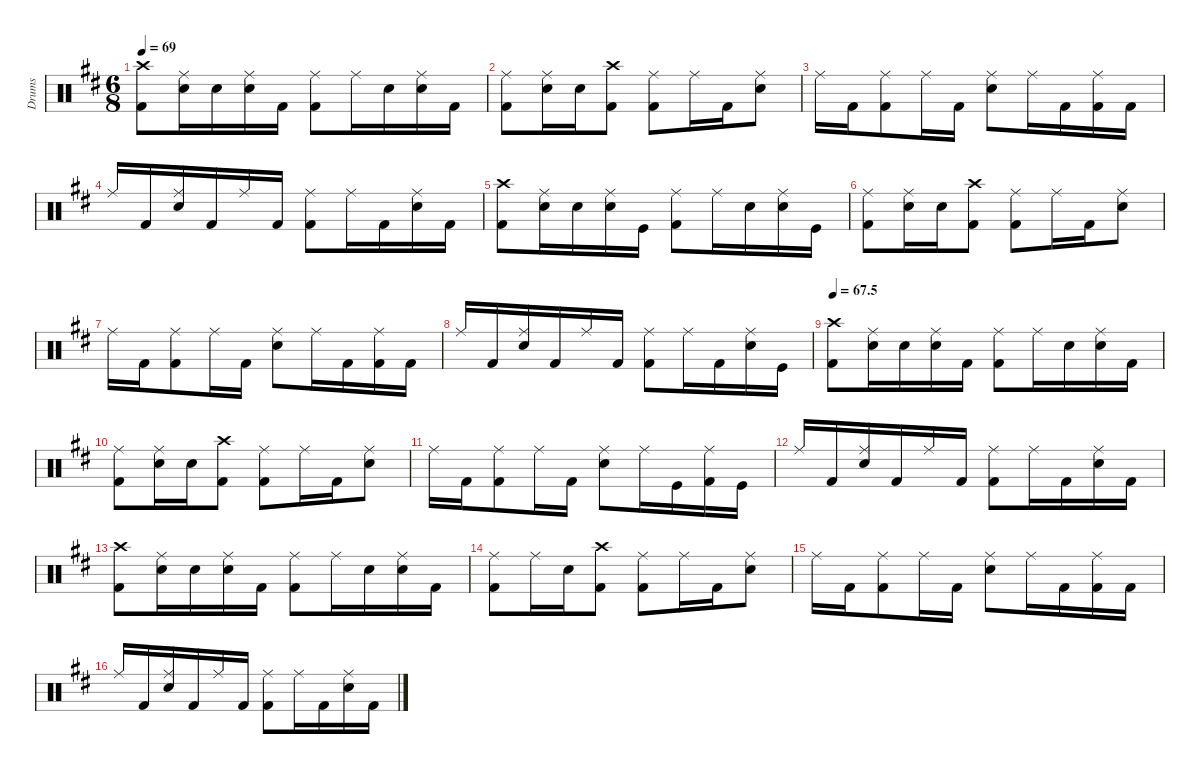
\defaultSystemsLayout 4
\hideDynamics
\bracketExtendMode groupsimilarinstruments
\firstSystemTrackNameMode fullname
\otherSystemsTrackNameOrientation horizontal
\track ("Drums" "drm.") {defaultSystemsLayout 4 instrument percussion}
\staff {score}
\articulation defaults
\ts (6 8)
\tempo 69
\clef neutral
\ks bminor
("Kick (hit) 2"{acc forcenatural} "Crash high (hit)"{acc #}).8{dy ff beam Down} ("Snare (hit) 2"{acc forcenatural} "Ride (middle)"{acc #}).16{beam Down} "Snare (hit) 2"{acc forcenatural}.16{beam Down} ("Snare (hit) 2"{acc forcenatural} "Ride (middle)"{acc #}).16{beam Down} "Kick (hit) 2"{acc forcenatural}.16{beam Down} ("Ride (middle)"{acc #} "Kick (hit) 2"{acc forcenatural}).8{beam Down} "Ride (middle)"{acc #}.16{beam Down} "Snare (hit) 2"{acc forcenatural}.16{beam Down} ("Ride (middle)"{acc #} "Snare (hit) 2"{acc forcenatural}).16{beam Down} "Kick (hit) 2"{acc forcenatural}.16{beam Down} |
("Kick (hit) 2"{acc forcenatural} "Ride (middle)"{acc #}).8{beam Down} ("Snare (hit) 2"{acc forcenatural} "Ride (middle)"{acc #}).16{beam Down} "Snare (hit) 2"{acc forcenatural}.16{beam Down} ("Kick (hit) 2"{acc forcenatural} "Crash high (hit)"{acc #}).8{beam Down} ("Ride (middle)"{acc #} "Kick (hit) 2"{acc forcenatural}).8{beam Down} "Ride (middle)"{acc #}.16{beam Down} "Kick (hit) 2"{acc forcenatural}.16{beam Down} ("Ride (middle)"{acc #} "Snare (hit) 2"{acc forcenatural}).8{beam Down} |
"Ride (middle)"{acc #}.16{beam Down} "Kick (hit) 2"{acc forcenatural}.16{beam Down} ("Ride (middle)"{acc #} "Kick (hit) 2"{acc forcenatural}).8{beam Down} "Ride (middle)"{acc #}.16{beam Down} "Kick (hit) 2"{acc forcenatural}.16{beam Down} ("Ride (middle)"{acc #} "Snare (hit) 2"{acc forcenatural}).8{beam Down} "Ride (middle)"{acc #}.16{beam Down} "Kick (hit) 2"{acc forcenatural}.16{beam Down} ("Kick (hit) 2"{acc forcenatural} "Ride (middle)"{acc #}).16{beam Down} "Kick (hit) 2"{acc forcenatural}.16{beam Down} |
"Ride (middle)"{acc #}.16{beam Up} "Kick (hit) 2"{acc forcenatural}.16{beam Up} ("Ride (middle)"{acc #} "Snare (hit) 2"{acc forcenatural}).16{beam Up} "Kick (hit) 2"{acc forcenatural}.16{beam Up} "Ride (middle)"{acc #}.16{beam Up} "Kick (hit) 2"{acc forcenatural}.16{beam Up} ("Ride (middle)"{acc #} "Kick (hit) 2"{acc forcenatural}).8{beam Down} "Ride (middle)"{acc #}.16{beam Down} "Kick (hit) 2"{acc forcenatural}.16{beam Down} ("Ride (middle)"{acc #} "Snare (hit) 2"{acc forcenatural}).16{beam Down} "Kick (hit) 2"{acc forcenatural}.16{beam Down} |
("Kick (hit) 2"{acc forcenatural} "Crash high (hit)"{acc #}).8{beam Down} ("Snare (hit) 2"{acc forcenatural} "Ride (middle)"{acc #}).16{beam Down} "Snare (hit) 2"{acc forcenatural}.16{beam Down} ("Snare (hit) 2"{acc forcenatural} "Ride (middle)"{acc #}).16{beam Down} "Kick (hit)"{acc forcenatural}.16{beam Down} ("Ride (middle)"{acc #} "Kick (hit) 2"{acc forcenatural}).8{beam Down} "Ride (middle)"{acc #}.16{beam Down} "Snare (hit) 2"{acc forcenatural}.16{beam Down} ("Ride (middle)"{acc #} "Snare (hit) 2"{acc forcenatural}).16{beam Down} "Kick (hit)"{acc forcenatural}.16{beam Down} |
("Kick (hit) 2"{acc forcenatural} "Ride (middle)"{acc #}).8{beam Down} ("Snare (hit) 2"{acc forcenatural} "Ride (middle)"{acc #}).16{beam Down} "Snare (hit) 2"{acc forcenatural}.16{beam Down} ("Kick (hit) 2"{acc forcenatural} "Crash high (hit)"{acc #}).8{beam Down} ("Ride (middle)"{acc #} "Kick (hit) 2"{acc forcenatural}).8{beam Down} "Ride (middle)"{acc #}.16{beam Down} "Kick (hit) 2"{acc forcenatural}.16{beam Down} ("Ride (middle)"{acc #} "Snare (hit) 2"{acc forcenatural}).8{beam Down} |
"Ride (middle)"{acc #}.16{beam Down} "Kick (hit) 2"{acc forcenatural}.16{beam Down} ("Ride (middle)"{acc #} "Kick (hit) 2"{acc forcenatural}).8{beam Down} "Ride (middle)"{acc #}.16{beam Down} "Kick (hit) 2"{acc forcenatural}.16{beam Down} ("Ride (middle)"{acc #} "Snare (hit) 2"{acc forcenatural}).8{beam Down} "Ride (middle)"{acc #}.16{beam Down} "Kick (hit) 2"{acc forcenatural}.16{beam Down} ("Kick (hit) 2"{acc forcenatural} "Ride (middle)"{acc #}).16{beam Down} "Kick (hit) 2"{acc forcenatural}.16{beam Down} |
"Ride (middle)"{acc #}.16{beam Up} "Kick (hit) 2"{acc forcenatural}.16{beam Up} ("Ride (middle)"{acc #} "Snare (hit) 2"{acc forcenatural}).16{beam Up} "Kick (hit) 2"{acc forcenatural}.16{beam Up} "Ride (middle)"{acc #}.16{beam Up} "Kick (hit) 2"{acc forcenatural}.16{beam Up} ("Ride (middle)"{acc #} "Kick (hit) 2"{acc forcenatural}).8{beam Down} "Ride (middle)"{acc #}.16{beam Down} "Kick (hit) 2"{acc forcenatural}.16{beam Down} ("Ride (middle)"{acc #} "Snare (hit) 2"{acc forcenatural}).16{beam Down} "Kick (hit)"{acc forcenatural}.16{beam Down} |
\tempo
67.5 ("Kick (hit) 2"{acc forcenatural} "Crash high (hit)"{acc #}).8{beam Down} ("Snare (hit) 2"{acc forcenatural} "Ride (middle)"{acc #}).16{beam Down} "Snare (hit) 2"{acc forcenatural}.16{beam Down} ("Snare (hit) 2"{acc forcenatural} "Ride (middle)"{acc #}).16{beam Down} "Kick (hit) 2"{acc forcenatural}.16{beam Down} ("Ride (middle)"{acc #} "Kick (hit) 2"{acc forcenatural}).8{beam Down} "Ride (middle)"{acc #}.16{beam Down} "Snare (hit) 2"{acc forcenatural}.16{beam Down} ("Ride (middle)"{acc #} "Snare (hit) 2"{acc forcenatural}).16{beam Down} "Kick (hit) 2"{acc forcenatural}.16{beam Down} |
("Kick (hit) 2"{acc forcenatural} "Ride (middle)"{acc #}).8{beam Down} ("Snare (hit) 2"{acc forcenatural} "Ride (middle)"{acc #}).16{beam Down} "Snare (hit) 2"{acc forcenatural}.16{beam Down} ("Kick (hit) 2"{acc forcenatural} "Crash high (hit)"{acc #}).8{beam Down} ("Ride (middle)"{acc #} "Kick (hit) 2"{acc forcenatural}).8{beam Down} "Ride (middle)"{acc #}.16{beam Down} "Kick (hit) 2"{acc forcenatural}.16{beam Down} ("Ride (middle)"{acc #} "Snare (hit) 2"{acc forcenatural}).8{beam Down} |
"Ride (middle)"{acc #}.16{beam Down} "Kick (hit) 2"{acc forcenatural}.16{beam Down} ("Ride (middle)"{acc #} "Kick (hit) 2"{acc forcenatural}).8{beam Down} "Ride (middle)"{acc #}.16{beam Down} "Kick (hit) 2"{acc forcenatural}.16{beam Down} ("Ride (middle)"{acc #} "Snare (hit) 2"{acc forcenatural}).8{beam Down} "Ride (middle)"{acc #}.16{beam Down} "Kick (hit)"{acc forcenatural}.16{beam Down} ("Ride (middle)"{acc #} "Kick (hit) 2"{acc forcenatural}).16{beam Down} "Kick (hit)"{acc forcenatural}.16{beam Down} |
"Ride (middle)"{acc #}.16{beam Up} "Kick (hit) 2"{acc forcenatural}.16{beam Up} ("Ride (middle)"{acc #} "Snare (hit) 2"{acc forcenatural}).16{beam Up} "Kick (hit) 2"{acc forcenatural}.16{beam Up} "Ride (middle)"{acc #}.16{beam Up} "Kick (hit) 2"{acc forcenatural}.16{beam Up} ("Ride (middle)"{acc #} "Kick (hit) 2"{acc forcenatural}).8{beam Down} "Ride (middle)"{acc #}.16{beam Down} "Kick (hit) 2"{acc forcenatural}.16{beam Down} ("Ride (middle)"{acc #} "Snare (hit) 2"{acc forcenatural}).16{beam Down} "Kick (hit) 2"{acc forcenatural}.16{beam Down} |
("Kick (hit) 2"{acc forcenatural} "Crash high (hit)"{acc #}).8{beam Down} ("Snare (hit) 2"{acc forcenatural} "Ride (middle)"{acc #}).16{beam Down} "Snare (hit) 2"{acc forcenatural}.16{beam Down} ("Snare (hit) 2"{acc forcenatural} "Ride (middle)"{acc #}).16{beam Down} "Kick (hit) 2"{acc forcenatural}.16{beam Down} ("Ride (middle)"{acc #} "Kick (hit) 2"{acc forcenatural}).8{beam Down} "Ride (middle)"{acc #}.16{beam Down} "Snare (hit) 2"{acc forcenatural}.16{beam Down} ("Ride (middle)"{acc #} "Snare (hit) 2"{acc forcenatural}).16{beam Down} "Kick (hit) 2"{acc forcenatural}.16{beam Down} |
("Kick (hit) 2"{acc forcenatural} "Ride (middle)"{acc #}).8{beam Down} "Ride (middle)"{acc #}.16{beam Down} "Snare (hit) 2"{acc forcenatural}.16{beam Down} ("Kick (hit) 2"{acc forcenatural} "Crash high (hit)"{acc #}).8{beam Down} ("Ride (middle)"{acc #} "Kick (hit) 2"{acc forcenatural}).8{beam Down} "Ride (middle)"{acc #}.16{beam Down} "Kick (hit) 2"{acc forcenatural}.16{beam Down} ("Ride (middle)"{acc #} "Snare (hit) 2"{acc forcenatural}).8{beam Down} |
"Ride (middle)"{acc #}.16{beam Down} "Kick (hit) 2"{acc forcenatural}.16{beam Down} ("Ride (middle)"{acc #} "Kick (hit) 2"{acc forcenatural}).8{beam Down} "Ride (middle)"{acc #}.16{beam Down} "Kick (hit) 2"{acc forcenatural}.16{beam Down} ("Ride (middle)"{acc #} "Snare (hit) 2"{acc forcenatural}).8{beam Down} "Ride (middle)"{acc #}.16{beam Down} "Kick (hit) 2"{acc forcenatural}.16{beam Down} ("Kick (hit) 2"{acc forcenatural} "Ride (middle)"{acc #}).16{beam Down} "Kick (hit) 2"{acc forcenatural}.16{beam Down} |
"Ride (middle)"{acc #}.16{beam Up} "Kick (hit) 2"{acc forcenatural}.16{beam Up} ("Ride (middle)"{acc #} "Snare (hit) 2"{acc forcenatural}).16{beam Up} "Kick (hit) 2"{acc forcenatural}.16{beam Up} "Ride (middle)"{acc #}.16{beam Up} "Kick (hit) 2"{acc forcenatural}.16{beam Up} ("Ride (middle)"{acc #} "Kick (hit) 2"{acc forcenatural}).8{beam Down} "Ride (middle)"{acc #}.16{beam Down} "Kick (hit) 2"{acc forcenatural}.16{beam Down} ("Ride (middle)"{acc #} "Snare (hit) 2"{acc forcenatural}).16{beam Down} "Kick (hit) 2"{acc forcenatural}.16{beam Down}
